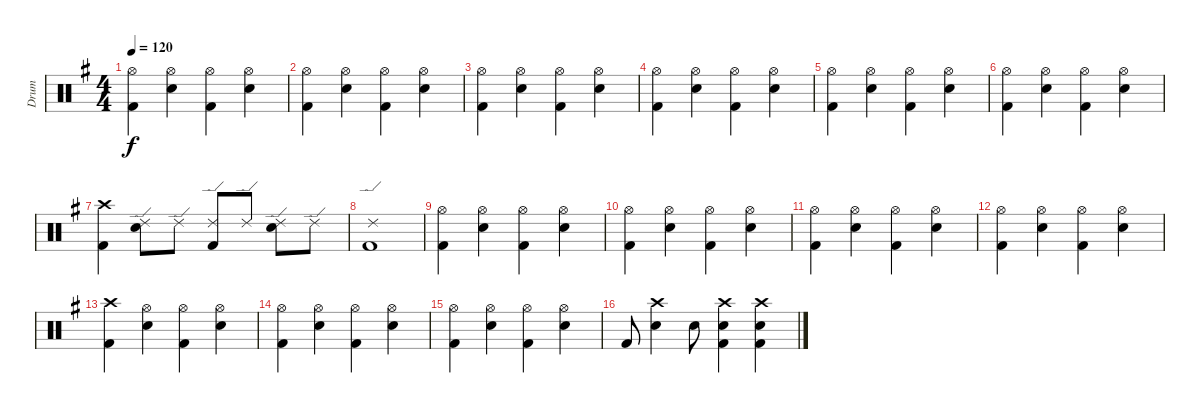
\track ("Drum" "Drum") {instrument percussion}
\staff {score}
\articulation defaults
\ts (4 4)
\tempo 120
\clef neutral
\ks g
("Hi-Hat (open)" "Kick (hit) 2").4{dy f} ("Hi-Hat (open)" "Electric Snare (hit)").4 ("Hi-Hat (open)" "Kick (hit) 2").4 ("Hi-Hat (open)" "Electric Snare (hit)").4 |
("Hi-Hat (open)" "Kick (hit) 2").4 ("Hi-Hat (open)" "Electric Snare (hit)").4 ("Hi-Hat (open)" "Kick (hit) 2").4 ("Hi-Hat (open)" "Electric Snare (hit)").4 |
("Hi-Hat (open)" "Kick (hit) 2").4 ("Hi-Hat (open)" "Electric Snare (hit)").4 ("Hi-Hat (open)" "Kick (hit) 2").4 ("Hi-Hat (open)" "Electric Snare (hit)").4 |
("Hi-Hat (open)" "Kick (hit) 2").4 ("Hi-Hat (open)" "Electric Snare (hit)").4 ("Hi-Hat (open)" "Kick (hit) 2").4 ("Hi-Hat (open)" "Electric Snare (hit)").4 |
("Hi-Hat (open)" "Kick (hit) 2").4 ("Hi-Hat (open)" "Electric Snare (hit)").4 ("Hi-Hat (open)" "Kick (hit) 2").4 ("Hi-Hat (open)" "Electric Snare (hit)").4 |
("Hi-Hat (open)" "Kick (hit) 2").4 ("Hi-Hat (open)" "Electric Snare (hit)").4 ("Hi-Hat (open)" "Kick (hit) 2").4 ("Hi-Hat (open)" "Electric Snare (hit)").4 |
("Crash high (hit)" "Kick (hit) 2").4 ("Ride (edge) 2" "Electric Snare (hit)").8 "Ride (edge) 2".8 ("Ride (edge) 2" "Kick (hit) 2").8 "Ride (edge) 2".8 ("Ride (edge) 2" "Electric Snare (hit)").8 "Ride (edge) 2".8 |
("Ride (edge) 2" "Kick (hit) 2").1 |
("Hi-Hat (open)" "Kick (hit) 2").4 ("Hi-Hat (open)" "Electric Snare (hit)").4 ("Hi-Hat (open)" "Kick (hit) 2").4 ("Hi-Hat (open)" "Electric Snare (hit)").4 |
("Hi-Hat (open)" "Kick (hit) 2").4 ("Hi-Hat (open)" "Electric Snare (hit)").4 ("Hi-Hat (open)" "Kick (hit) 2").4 ("Hi-Hat (open)" "Electric Snare (hit)").4 |
("Hi-Hat (open)" "Kick (hit) 2").4 ("Hi-Hat (open)" "Electric Snare (hit)").4 ("Hi-Hat (open)" "Kick (hit) 2").4 ("Hi-Hat (open)" "Electric Snare (hit)").4 |
("Hi-Hat (open)" "Kick (hit) 2").4 ("Hi-Hat (open)" "Electric Snare (hit)").4 ("Hi-Hat (open)" "Kick (hit) 2").4 ("Hi-Hat (open)" "Electric Snare (hit)").4 |
("Kick (hit) 2" "Crash high (hit)").4 ("Hi-Hat (open)" "Electric Snare (hit)").4 ("Hi-Hat (open)" "Kick (hit) 2").4 ("Hi-Hat (open)" "Electric Snare (hit)").4 |
("Hi-Hat (open)" "Kick (hit) 2").4 ("Hi-Hat (open)" "Electric Snare (hit)").4 ("Hi-Hat (open)" "Kick (hit) 2").4 ("Hi-Hat (open)" "Electric Snare (hit)").4 |
("Hi-Hat (open)" "Kick (hit) 2").4 ("Hi-Hat (open)" "Electric Snare (hit)").4 ("Hi-Hat (open)" "Kick (hit) 2").4 ("Hi-Hat (open)" "Electric Snare (hit)").4 |
"Kick (hit) 2".8 ("Crash high (hit)" "Electric Snare (hit)").4 "Electric Snare (hit)".8 ("Electric Snare (hit)" "Kick (hit) 2" "Crash high (hit)").4 ("Electric Snare (hit)" "Kick (hit) 2" "Crash high (hit)").4
